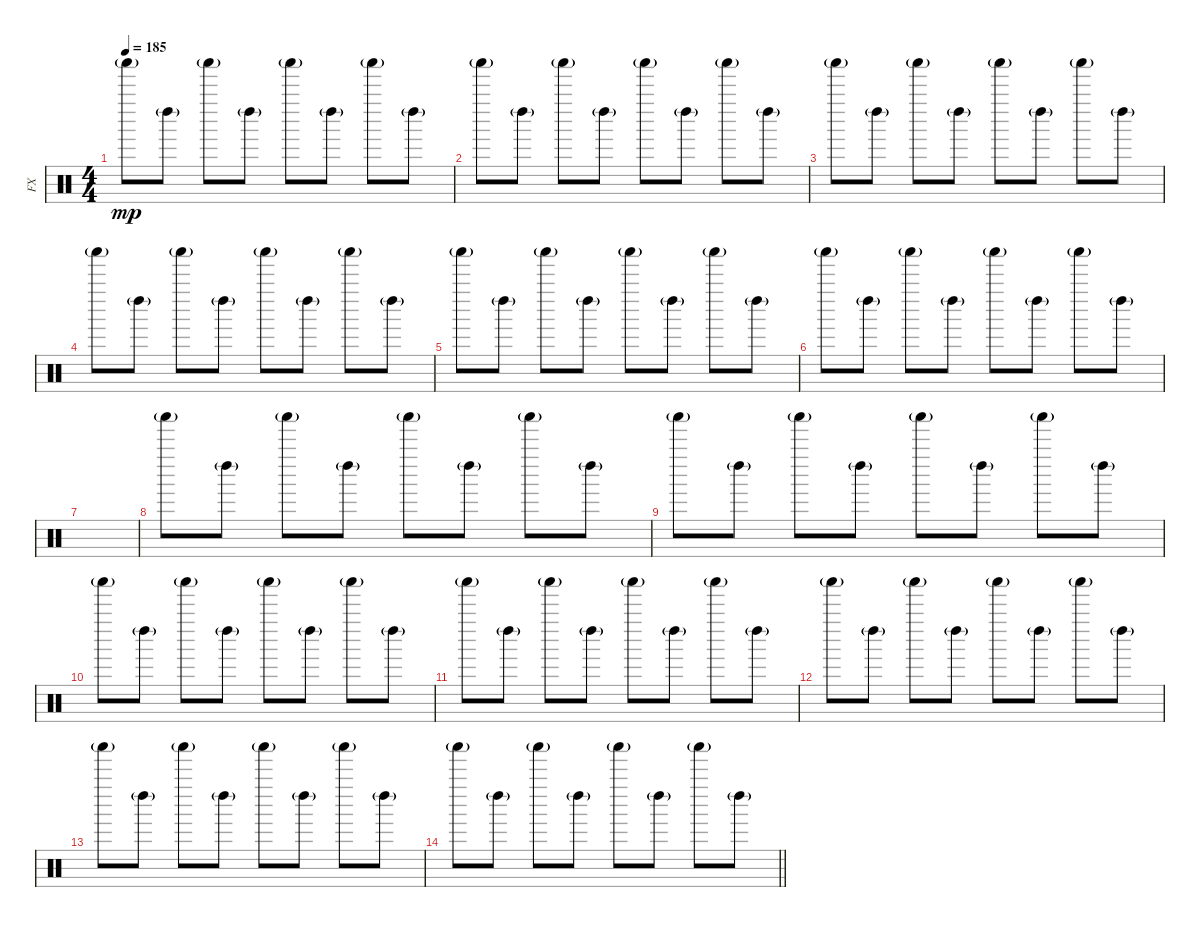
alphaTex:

\track ("FX" "FX") {instrument percussion}
\staff {score}
\articulation defaults
\ts (4 4)
\tempo 185
\clef neutral
\ks c "Shaker (hit)"{g}.8{dy mp} "Left Maraca (hit)"{g}.8 "Shaker (hit)"{g}.8 "Left Maraca (hit)"{g}.8 "Shaker (hit)"{g}.8 "Left Maraca (hit)"{g}.8 "Shaker (hit)"{g}.8 "Left Maraca (hit)"{g}.8
|
"Shaker (hit)"{g}.8 "Left Maraca (hit)"{g}.8 "Shaker (hit)"{g}.8 "Left Maraca (hit)"{g}.8 "Shaker (hit)"{g}.8 "Left Maraca (hit)"{g}.8 "Shaker (hit)"{g}.8 "Left Maraca (hit)"{g}.8 |
"Shaker (hit)"{g}.8 "Left Maraca (hit)"{g}.8 "Shaker (hit)"{g}.8 "Left Maraca (hit)"{g}.8 "Shaker (hit)"{g}.8 "Left Maraca (hit)"{g}.8 "Shaker (hit)"{g}.8 "Left Maraca (hit)"{g}.8 |
"Shaker (hit)"{g}.8 "Left Maraca (hit)"{g}.8 "Shaker (hit)"{g}.8 "Left Maraca (hit)"{g}.8 "Shaker (hit)"{g}.8 "Left Maraca (hit)"{g}.8 "Shaker (hit)"{g}.8 "Left Maraca (hit)"{g}.8 |
"Shaker (hit)"{g}.8 "Left Maraca (hit)"{g}.8 "Shaker (hit)"{g}.8 "Left Maraca (hit)"{g}.8 "Shaker (hit)"{g}.8 "Left Maraca (hit)"{g}.8 "Shaker (hit)"{g}.8 "Left Maraca (hit)"{g}.8 |
"Shaker (hit)"{g}.8 "Left Maraca (hit)"{g}.8 "Shaker (hit)"{g}.8 "Left Maraca (hit)"{g}.8 "Shaker (hit)"{g}.8 "Left Maraca (hit)"{g}.8 "Shaker (hit)"{g}.8 "Left Maraca (hit)"{g}.8 |
|
"Shaker (hit)"{g}.8 "Left Maraca (hit)"{g}.8 "Shaker (hit)"{g}.8 "Left Maraca (hit)"{g}.8 "Shaker (hit)"{g}.8 "Left Maraca (hit)"{g}.8 "Shaker (hit)"{g}.8 "Left Maraca (hit)"{g}.8 |
"Shaker (hit)"{g}.8 "Left Maraca (hit)"{g}.8 "Shaker (hit)"{g}.8 "Left Maraca (hit)"{g}.8 "Shaker (hit)"{g}.8 "Left Maraca (hit)"{g}.8 "Shaker (hit)"{g}.8 "Left Maraca (hit)"{g}.8 |
"Shaker (hit)"{g}.8 "Left Maraca (hit)"{g}.8 "Shaker (hit)"{g}.8 "Left Maraca (hit)"{g}.8 "Shaker (hit)"{g}.8 "Left Maraca (hit)"{g}.8 "Shaker (hit)"{g}.8 "Left Maraca (hit)"{g}.8 |
"Shaker (hit)"{g}.8 "Left Maraca (hit)"{g}.8 "Shaker (hit)"{g}.8 "Left Maraca (hit)"{g}.8 "Shaker (hit)"{g}.8 "Left Maraca (hit)"{g}.8 "Shaker (hit)"{g}.8 "Left Maraca (hit)"{g}.8 |
"Shaker (hit)"{g}.8 "Left Maraca (hit)"{g}.8 "Shaker (hit)"{g}.8 "Left Maraca (hit)"{g}.8 "Shaker (hit)"{g}.8 "Left Maraca (hit)"{g}.8 "Shaker (hit)"{g}.8 "Left Maraca (hit)"{g}.8 |
"Shaker (hit)"{g}.8 "Left Maraca (hit)"{g}.8 "Shaker (hit)"{g}.8 "Left Maraca (hit)"{g}.8 "Shaker (hit)"{g}.8 "Left Maraca (hit)"{g}.8 "Shaker (hit)"{g}.8 "Left Maraca (hit)"{g}.8 |
\barLineRight lightlight "Shaker (hit)"{g}.8 "Left Maraca (hit)"{g}.8 "Shaker (hit)"{g}.8 "Left Maraca (hit)"{g}.8 "Shaker (hit)"{g}.8 "Left Maraca (hit)"{g}.8 "Shaker (hit)"{g}.8 "Left Maraca (hit)"{g}.8
